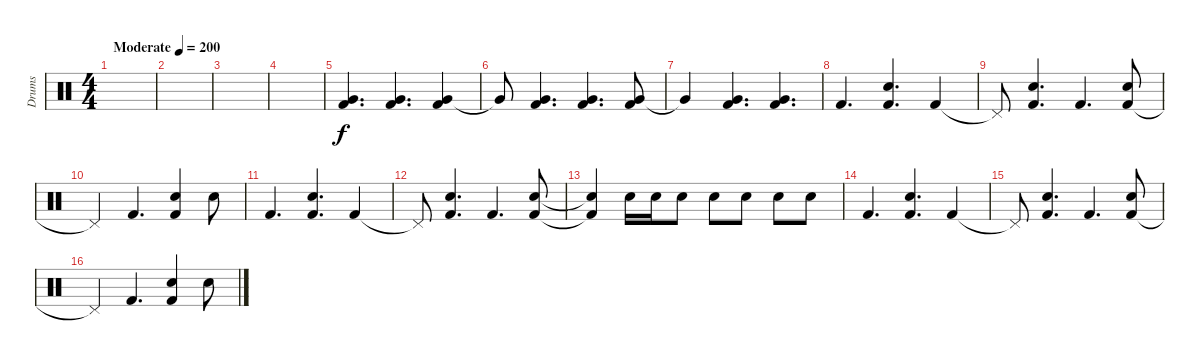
\track ("Drums" "Drums") {instrument percussion}
\staff {score}
\articulation defaults
\ts (4 4)
\tempo (200 "Moderate")
\clef neutral
\ks c
|
|
|
|
("Very Low Tom (hit)" "Kick (hit) 2").4{d} ("Very Low Tom (hit)" "Kick (hit) 2").4{d} ("Very Low Tom (hit)" "Kick (hit) 2").4 |
"Very Low Tom (hit)"{t}.8 ("Very Low Tom (hit)" "Kick (hit) 2").4{d} ("Very Low Tom (hit)" "Kick (hit) 2").4{d} ("Very Low Tom (hit)" "Kick (hit) 2").8 |
"Very Low Tom (hit)"{t}.4 ("Very Low Tom (hit)" "Kick (hit) 2").4{d} ("Very Low Tom (hit)" "Kick (hit) 2").4{d} |
"Kick (hit) 2".4{d} ("Kick (hit) 2" "Snare (hit) 2").4{d} "Kick (hit) 2".4 |
"Pedal Hi-Hat (hit)"{t}.8 ("Kick (hit) 2" "Snare (hit) 2").4{d} "Kick (hit) 2".4{d} ("Kick (hit) 2" "Snare (hit) 2").8 |
"Pedal Hi-Hat (hit)"{t}.4 "Kick (hit) 2".4{d} ("Kick (hit) 2" "Snare (hit) 2").4 "Snare (hit) 2".8 |
"Kick (hit) 2".4{d} ("Kick (hit) 2" "Snare (hit) 2").4{d} "Kick (hit) 2".4 |
"Pedal Hi-Hat (hit)"{t}.8 ("Kick (hit) 2" "Snare (hit) 2").4{d} "Kick (hit) 2".4{d} ("Kick (hit) 2" "Snare (hit) 2").8 |
("Kick (hit) 2"{t} "Snare (hit) 2"{t}).4 "Snare (hit) 2".16 "Snare (hit) 2".16 "Snare (hit) 2".8 "Snare (hit) 2".8 "Snare (hit) 2".8 "Snare (hit) 2".8 "Snare (hit) 2".8 |
"Kick (hit) 2".4{d} ("Kick (hit) 2" "Snare (hit) 2").4{d} "Kick (hit) 2".4 |
"Pedal Hi-Hat (hit)"{t}.8 ("Kick (hit) 2" "Snare (hit) 2").4{d} "Kick (hit) 2".4{d} ("Kick (hit) 2" "Snare (hit) 2").8 |
"Pedal Hi-Hat (hit)"{t}.4 "Kick (hit) 2".4{d} ("Kick (hit) 2" "Snare (hit) 2").4 "Snare (hit) 2".8
